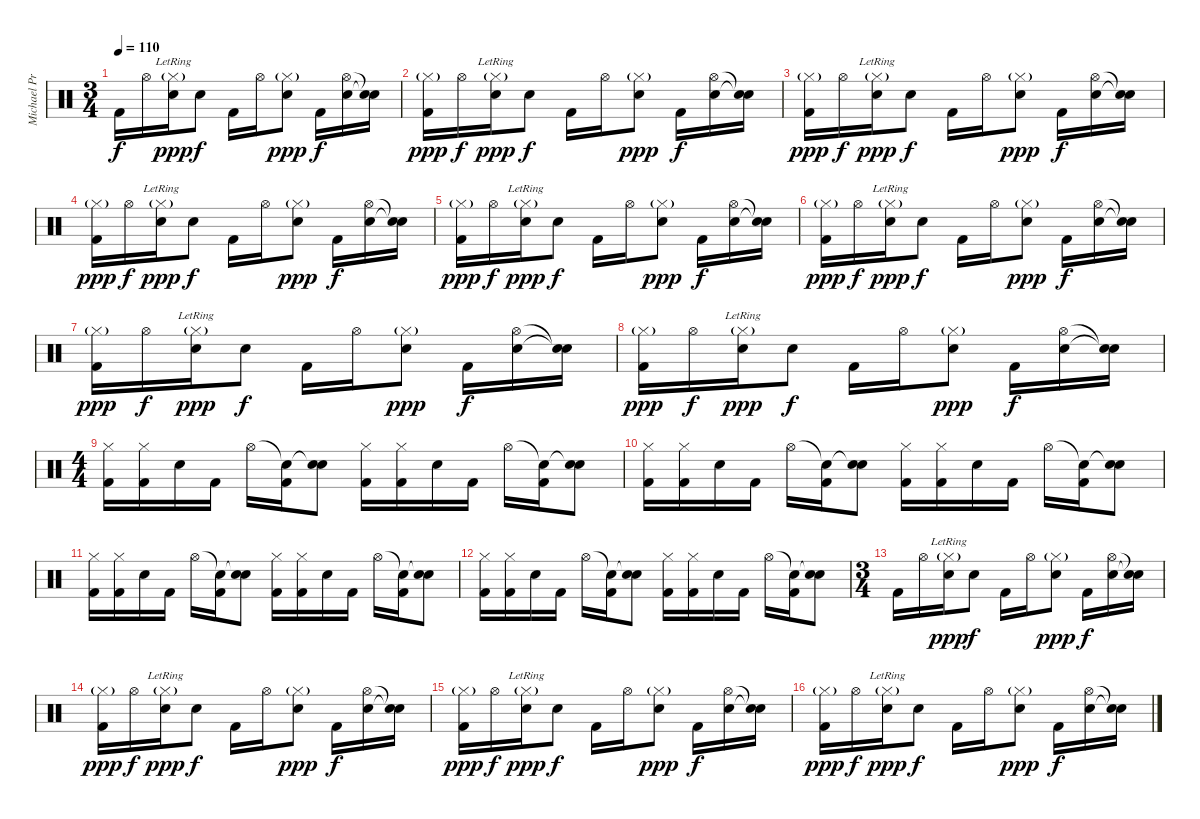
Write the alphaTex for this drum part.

\track ("Michael Prain - Drums" "Michael Pr") {instrument percussion}
\staff {score}
\articulation defaults
\ts (3 4)
\tempo 110
\clef neutral
\ks c "Kick (hit) 2".16{dy f} "Hi-Hat (open)".16
("Hi-Hat (closed)"{g lr} "Electric Snare (hit)").16{dy ppp} "Electric Snare (hit)".8{dy f} "Kick (hit) 2".16 "Hi-Hat (open)".16 ("Hi-Hat (closed)"{g} "Electric Snare (hit)").8{dy ppp} "Kick (hit) 2".16{dy f} ("Hi-Hat (open)" "Electric Snare (hit)").16 ("Snare (hit)"{t} "Snare (hit)"{t}).16 |
("Hi-Hat (closed)"{g} "Kick (hit) 2").16{dy ppp} "Hi-Hat (open)".16{dy f} ("Hi-Hat (closed)"{g lr} "Electric Snare (hit)").16{dy ppp} "Electric Snare (hit)".8{dy f} "Kick (hit) 2".16 "Hi-Hat (open)".16 ("Hi-Hat (closed)"{g} "Electric Snare (hit)").8{dy ppp} "Kick (hit) 2".16{dy f} ("Hi-Hat (open)" "Electric Snare (hit)").16 ("Snare (hit)"{t} "Snare (hit)"{t}).16 |
("Hi-Hat (closed)"{g} "Kick (hit) 2").16{dy ppp} "Hi-Hat (open)".16{dy f} ("Hi-Hat (closed)"{g lr} "Electric Snare (hit)").16{dy ppp} "Electric Snare (hit)".8{dy f} "Kick (hit) 2".16 "Hi-Hat (open)".16 ("Hi-Hat (closed)"{g} "Electric Snare (hit)").8{dy ppp} "Kick (hit) 2".16{dy f} ("Hi-Hat (open)" "Electric Snare (hit)").16 ("Snare (hit)"{t} "Snare (hit)"{t}).16 |
("Hi-Hat (closed)"{g} "Kick (hit) 2").16{dy ppp} "Hi-Hat (open)".16{dy f} ("Hi-Hat (closed)"{g lr} "Electric Snare (hit)").16{dy ppp} "Electric Snare (hit)".8{dy f} "Kick (hit) 2".16 "Hi-Hat (open)".16 ("Hi-Hat (closed)"{g} "Electric Snare (hit)").8{dy ppp} "Kick (hit) 2".16{dy f} ("Hi-Hat (open)" "Electric Snare (hit)").16 ("Snare (hit)"{t} "Snare (hit)"{t}).16 |
("Hi-Hat (closed)"{g} "Kick (hit) 2").16{dy ppp} "Hi-Hat (open)".16{dy f} ("Hi-Hat (closed)"{g lr} "Electric Snare (hit)").16{dy ppp} "Electric Snare (hit)".8{dy f} "Kick (hit) 2".16 "Hi-Hat (open)".16 ("Hi-Hat (closed)"{g} "Electric Snare (hit)").8{dy ppp} "Kick (hit) 2".16{dy f} ("Hi-Hat (open)" "Electric Snare (hit)").16 ("Snare (hit)"{t} "Snare (hit)"{t}).16 |
("Hi-Hat (closed)"{g} "Kick (hit) 2").16{dy ppp} "Hi-Hat (open)".16{dy f} ("Hi-Hat (closed)"{g lr} "Electric Snare (hit)").16{dy ppp} "Electric Snare (hit)".8{dy f} "Kick (hit) 2".16 "Hi-Hat (open)".16 ("Hi-Hat (closed)"{g} "Electric Snare (hit)").8{dy ppp} "Kick (hit) 2".16{dy f} ("Hi-Hat (open)" "Electric Snare (hit)").16 ("Snare (hit)"{t} "Snare (hit)"{t}).16 |
("Hi-Hat (closed)"{g} "Kick (hit) 2").16{dy ppp} "Hi-Hat (open)".16{dy f} ("Hi-Hat (closed)"{g lr} "Electric Snare (hit)").16{dy ppp} "Electric Snare (hit)".8{dy f} "Kick (hit) 2".16 "Hi-Hat (open)".16 ("Hi-Hat (closed)"{g} "Electric Snare (hit)").8{dy ppp} "Kick (hit) 2".16{dy f} ("Hi-Hat (open)" "Electric Snare (hit)").16 ("Snare (hit)"{t} "Snare (hit)"{t}).16 |
("Hi-Hat (closed)"{g} "Kick (hit) 2").16{dy ppp} "Hi-Hat (open)".16{dy f} ("Hi-Hat (closed)"{g lr} "Electric Snare (hit)").16{dy ppp} "Electric Snare (hit)".8{dy f} "Kick (hit) 2".16 "Hi-Hat (open)".16 ("Hi-Hat (closed)"{g} "Electric Snare (hit)").8{dy ppp} "Kick (hit) 2".16{dy f} ("Hi-Hat (open)" "Electric Snare (hit)").16 ("Snare (hit)"{t} "Snare (hit)"{t}).16 |
\ts (4 4)
("Hi-Hat (closed)" "Kick (hit) 2").16 ("Hi-Hat (closed)" "Kick (hit) 2").16 "Electric Snare (hit)".16 "Kick (hit) 2".16 "Hi-Hat (open)".16 ("Snare (hit)"{t} "Kick (hit) 2").16 ("Snare (hit)"{t} "Electric Snare (hit)").8 ("Hi-Hat (closed)" "Kick (hit) 2").16 ("Hi-Hat (closed)" "Kick (hit) 2").16 "Electric Snare (hit)".16 "Kick (hit) 2".16 "Hi-Hat (open)".16 ("Snare (hit)"{t} "Kick (hit) 2").16 ("Snare (hit)"{t} "Electric Snare (hit)").8 |
("Hi-Hat (closed)" "Kick (hit) 2").16 ("Hi-Hat (closed)" "Kick (hit) 2").16 "Electric Snare (hit)".16 "Kick (hit) 2".16 "Hi-Hat (open)".16 ("Snare (hit)"{t} "Kick (hit) 2").16 ("Snare (hit)"{t} "Electric Snare (hit)").8 ("Hi-Hat (closed)" "Kick (hit) 2").16 ("Hi-Hat (closed)" "Kick (hit) 2").16 "Electric Snare (hit)".16 "Kick (hit) 2".16 "Hi-Hat (open)".16 ("Snare (hit)"{t} "Kick (hit) 2").16 ("Snare (hit)"{t} "Electric Snare (hit)").8 |
("Hi-Hat (closed)" "Kick (hit) 2").16 ("Hi-Hat (closed)" "Kick (hit) 2").16 "Electric Snare (hit)".16 "Kick (hit) 2".16 "Hi-Hat (open)".16 ("Snare (hit)"{t} "Kick (hit) 2").16 ("Snare (hit)"{t} "Electric Snare (hit)").8 ("Hi-Hat (closed)" "Kick (hit) 2").16 ("Hi-Hat (closed)" "Kick (hit) 2").16 "Electric Snare (hit)".16 "Kick (hit) 2".16 "Hi-Hat (open)".16 ("Snare (hit)"{t} "Kick (hit) 2").16 ("Snare (hit)"{t} "Electric Snare (hit)").8 |
("Hi-Hat (closed)" "Kick (hit) 2").16 ("Hi-Hat (closed)" "Kick (hit) 2").16 "Electric Snare (hit)".16 "Kick (hit) 2".16 "Hi-Hat (open)".16 ("Snare (hit)"{t} "Kick (hit) 2").16 ("Snare (hit)"{t} "Electric Snare (hit)").8 ("Hi-Hat (closed)" "Kick (hit) 2").16 ("Hi-Hat (closed)" "Kick (hit) 2").16 "Electric Snare (hit)".16 "Kick (hit) 2".16 "Hi-Hat (open)".16 ("Snare (hit)"{t} "Kick (hit) 2").16 ("Snare (hit)"{t} "Electric Snare (hit)").8 |
\ts (3 4)
"Kick (hit) 2".16 "Hi-Hat (open)".16 ("Hi-Hat (closed)"{g lr} "Electric Snare (hit)").16{dy ppp} "Electric Snare (hit)".8{dy f} "Kick (hit) 2".16 "Hi-Hat (open)".16 ("Hi-Hat (closed)"{g} "Electric Snare (hit)").8{dy ppp} "Kick (hit) 2".16{dy f} ("Hi-Hat (open)" "Electric Snare (hit)").16 ("Snare (hit)"{t} "Snare (hit)"{t}).16 |
("Hi-Hat (closed)"{g} "Kick (hit) 2").16{dy ppp} "Hi-Hat (open)".16{dy f} ("Hi-Hat (closed)"{g lr} "Electric Snare (hit)").16{dy ppp} "Electric Snare (hit)".8{dy f} "Kick (hit) 2".16 "Hi-Hat (open)".16 ("Hi-Hat (closed)"{g} "Electric Snare (hit)").8{dy ppp} "Kick (hit) 2".16{dy f} ("Hi-Hat (open)" "Electric Snare (hit)").16 ("Snare (hit)"{t} "Snare (hit)"{t}).16 |
("Hi-Hat (closed)"{g} "Kick (hit) 2").16{dy ppp} "Hi-Hat (open)".16{dy f} ("Hi-Hat (closed)"{g lr} "Electric Snare (hit)").16{dy ppp} "Electric Snare (hit)".8{dy f} "Kick (hit) 2".16 "Hi-Hat (open)".16 ("Hi-Hat (closed)"{g} "Electric Snare (hit)").8{dy ppp} "Kick (hit) 2".16{dy f} ("Hi-Hat (open)" "Electric Snare (hit)").16 ("Snare (hit)"{t} "Snare (hit)"{t}).16 |
("Hi-Hat (closed)"{g} "Kick (hit) 2").16{dy ppp} "Hi-Hat (open)".16{dy f} ("Hi-Hat (closed)"{g lr} "Electric Snare (hit)").16{dy ppp} "Electric Snare (hit)".8{dy f} "Kick (hit) 2".16 "Hi-Hat (open)".16 ("Hi-Hat (closed)"{g} "Electric Snare (hit)").8{dy ppp} "Kick (hit) 2".16{dy f} ("Hi-Hat (open)" "Electric Snare (hit)").16 ("Snare (hit)"{t} "Snare (hit)"{t}).16
